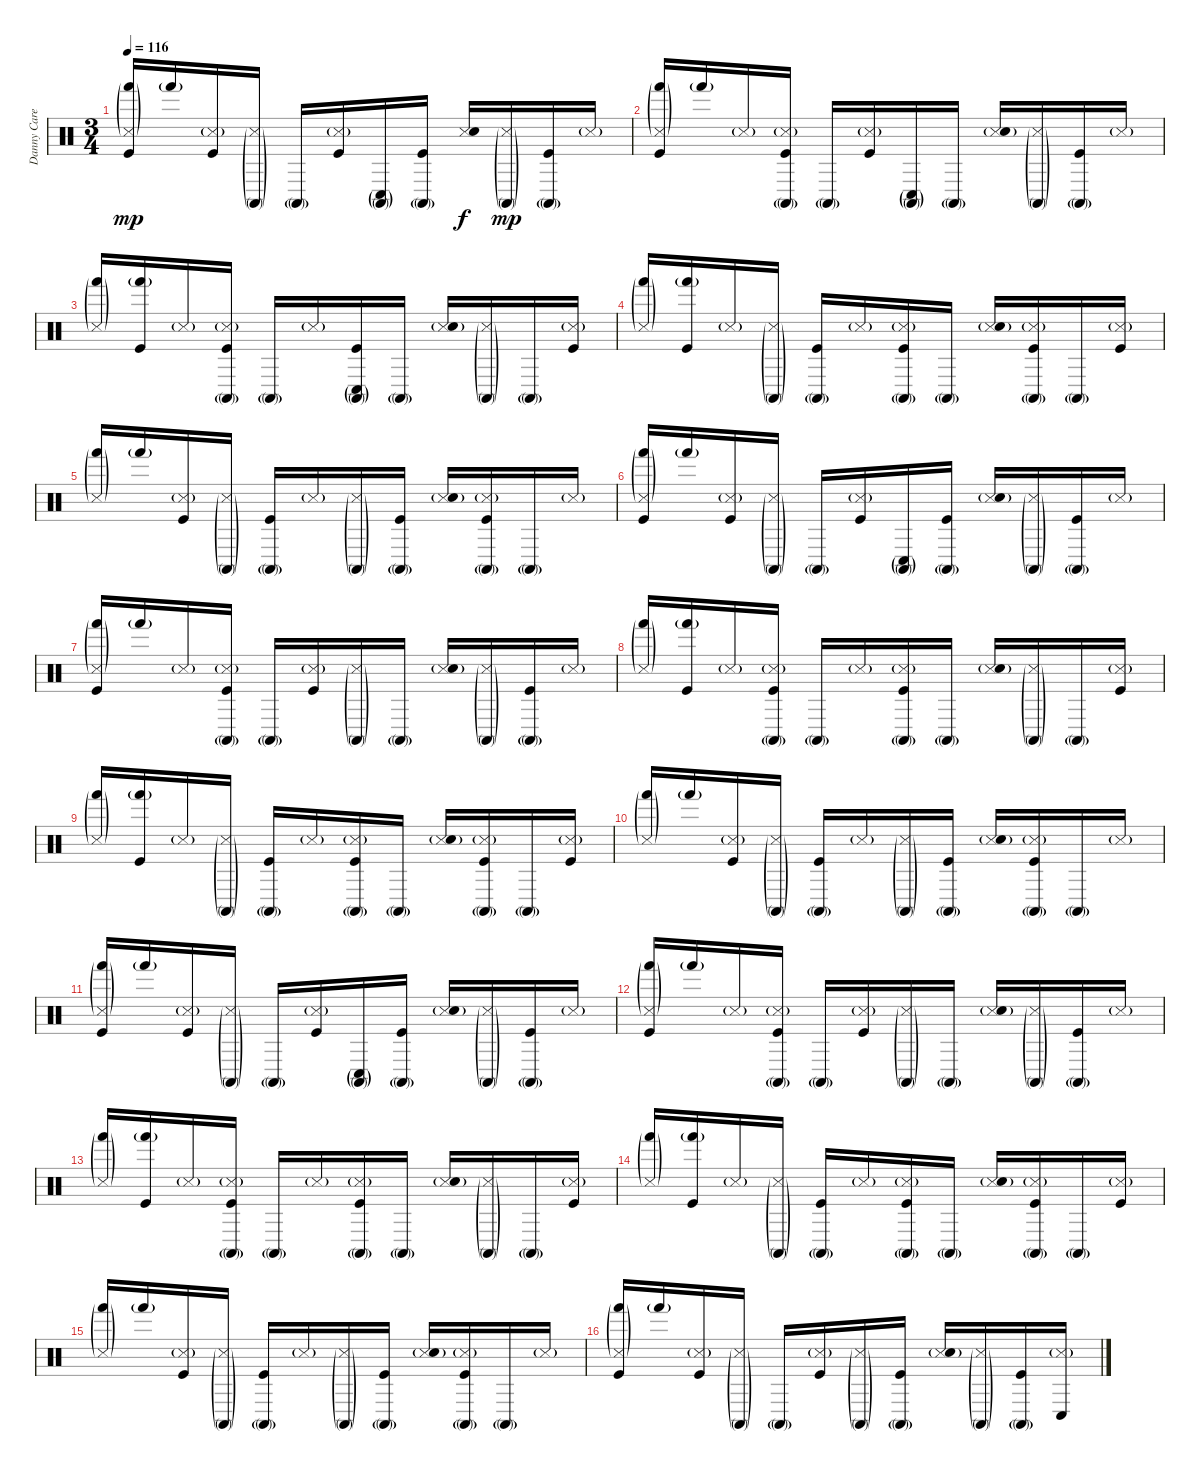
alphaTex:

\track ("Danny Carey (drum)" "Danny Care") {instrument percussion}
\staff {score}
\articulation defaults
\ts (3 4)
\tempo 116
\clef neutral
\ks c
("Hand (hit)"{g} "Snare (side stick) 3"{g} "Kick (hit)").16{dy mp} "Hand (hit)"{g}.16 ("Snare (side stick) 3"{g} "Kick (hit)").16 ("Conga high (mute)"{g} "Snare (side stick) 3"{g}).16 "Conga high (mute)"{g}.16 ("Snare (side stick) 3"{g} "Kick (hit)").16 ("Conga high (mute)"{g} "Conga low (hit)"{g}).16 ("Conga high (mute)"{g} "Kick (hit)").16 ("Snare (side stick) 3" "Snare (hit) 2").16{dy f} ("Conga high (mute)"{g} "Snare (side stick) 3"{g}).16{dy mp} ("Conga high (mute)"{g} "Kick (hit)").16 "Snare (side stick) 3"{g}.16 |
("Hand (hit)"{g} "Snare (side stick) 3"{g} "Kick (hit)").16 "Hand (hit)"{g}.16 "Snare (side stick) 3"{g}.16 ("Conga high (mute)"{g} "Snare (side stick) 3"{g} "Kick (hit)").16 "Conga high (mute)"{g}.16 ("Snare (side stick) 3"{g} "Kick (hit)").16 ("Conga high (mute)"{g} "Conga low (hit)"{g}).16 "Conga high (mute)"{g}.16 ("Snare (side stick) 3"{g} "Snare (hit) 2").16 ("Conga high (mute)"{g} "Snare (side stick) 3"{g}).16 ("Conga high (mute)"{g} "Kick (hit)").16 "Snare (side stick) 3"{g}.16 |
("Hand (hit)"{g} "Snare (side stick) 3"{g}).16 ("Hand (hit)"{g} "Kick (hit)").16 "Snare (side stick) 3"{g}.16 ("Conga high (mute)"{g} "Snare (side stick) 3"{g} "Kick (hit)").16 "Conga high (mute)"{g}.16 "Snare (side stick) 3"{g}.16 ("Conga high (mute)"{g} "Conga low (hit)"{g} "Kick (hit)").16 "Conga high (mute)"{g}.16 ("Snare (side stick) 3"{g} "Snare (hit) 2").16 ("Conga high (mute)"{g} "Snare (side stick) 3"{g}).16 "Conga high (mute)"{g}.16 ("Snare (side stick) 3"{g} "Kick (hit)").16 |
("Hand (hit)"{g} "Snare (side stick) 3"{g}).16 ("Hand (hit)"{g} "Kick (hit)").16 "Snare (side stick) 3"{g}.16 ("Conga high (mute)"{g} "Snare (side stick) 3"{g}).16 ("Conga high (mute)"{g} "Kick (hit)").16 "Snare (side stick) 3"{g}.16 ("Conga high (mute)"{g} "Snare (side stick) 3"{g} "Kick (hit)").16 "Conga high (mute)"{g}.16 ("Snare (side stick) 3"{g} "Snare (hit) 2").16 ("Conga high (mute)"{g} "Snare (side stick) 3"{g} "Kick (hit)").16 "Conga high (mute)"{g}.16 ("Snare (side stick) 3"{g} "Kick (hit)").16 |
("Hand (hit)"{g} "Snare (side stick) 3"{g}).16 "Hand (hit)"{g}.16 ("Snare (side stick) 3"{g} "Kick (hit)").16 ("Conga high (mute)"{g} "Snare (side stick) 3"{g}).16 ("Conga high (mute)"{g} "Kick (hit)").16 "Snare (side stick) 3"{g}.16 ("Conga high (mute)"{g} "Snare (side stick) 3"{g}).16 ("Conga high (mute)"{g} "Kick (hit)").16 ("Snare (side stick) 3"{g} "Snare (hit) 2").16 ("Conga high (mute)"{g} "Snare (side stick) 3"{g} "Kick (hit)").16 "Conga high (mute)"{g}.16 "Snare (side stick) 3"{g}.16 |
("Hand (hit)"{g} "Snare (side stick) 3"{g} "Kick (hit)").16 "Hand (hit)"{g}.16 ("Snare (side stick) 3"{g} "Kick (hit)").16 ("Conga high (mute)"{g} "Snare (side stick) 3"{g}).16 "Conga high (mute)"{g}.16 ("Snare (side stick) 3"{g} "Kick (hit)").16 ("Conga high (mute)"{g} "Conga low (hit)"{g}).16 ("Conga high (mute)"{g} "Kick (hit)").16 ("Snare (side stick) 3"{g} "Snare (hit) 2").16 ("Conga high (mute)"{g} "Snare (side stick) 3"{g}).16 ("Conga high (mute)"{g} "Kick (hit)").16 "Snare (side stick) 3"{g}.16 |
("Hand (hit)"{g} "Snare (side stick) 3"{g} "Kick (hit)").16 "Hand (hit)"{g}.16 "Snare (side stick) 3"{g}.16 ("Conga high (mute)"{g} "Snare (side stick) 3"{g} "Kick (hit)").16 "Conga high (mute)"{g}.16 ("Snare (side stick) 3"{g} "Kick (hit)").16 ("Conga high (mute)"{g} "Snare (side stick) 3"{g}).16 "Conga high (mute)"{g}.16 ("Snare (side stick) 3"{g} "Snare (hit) 2").16 ("Conga high (mute)"{g} "Snare (side stick) 3"{g}).16 ("Conga high (mute)"{g} "Kick (hit)").16 "Snare (side stick) 3"{g}.16 |
("Hand (hit)"{g} "Snare (side stick) 3"{g}).16 ("Hand (hit)"{g} "Kick (hit)").16 "Snare (side stick) 3"{g}.16 ("Conga high (mute)"{g} "Snare (side stick) 3"{g} "Kick (hit)").16 "Conga high (mute)"{g}.16 "Snare (side stick) 3"{g}.16 ("Conga high (mute)"{g} "Snare (side stick) 3"{g} "Kick (hit)").16 "Conga high (mute)"{g}.16 ("Snare (side stick) 3"{g} "Snare (hit) 2").16 ("Conga high (mute)"{g} "Snare (side stick) 3"{g}).16 "Conga high (mute)"{g}.16 ("Snare (side stick) 3"{g} "Kick (hit)").16 |
("Hand (hit)"{g} "Snare (side stick) 3"{g}).16 ("Hand (hit)"{g} "Kick (hit)").16 "Snare (side stick) 3"{g}.16 ("Conga high (mute)"{g} "Snare (side stick) 3"{g}).16 ("Conga high (mute)"{g} "Kick (hit)").16 "Snare (side stick) 3"{g}.16 ("Conga high (mute)"{g} "Snare (side stick) 3"{g} "Kick (hit)").16 "Conga high (mute)"{g}.16 ("Snare (side stick) 3"{g} "Snare (hit) 2").16 ("Conga high (mute)"{g} "Snare (side stick) 3"{g} "Kick (hit)").16 "Conga high (mute)"{g}.16 ("Snare (side stick) 3"{g} "Kick (hit)").16 |
("Hand (hit)"{g} "Snare (side stick) 3"{g}).16 "Hand (hit)"{g}.16 ("Snare (side stick) 3"{g} "Kick (hit)").16 ("Conga high (mute)"{g} "Snare (side stick) 3"{g}).16 ("Conga high (mute)"{g} "Kick (hit)").16 "Snare (side stick) 3"{g}.16 ("Conga high (mute)"{g} "Snare (side stick) 3"{g}).16 ("Conga high (mute)"{g} "Kick (hit)").16 ("Snare (side stick) 3"{g} "Snare (hit) 2").16 ("Conga high (mute)"{g} "Snare (side stick) 3"{g} "Kick (hit)").16 "Conga high (mute)"{g}.16 "Snare (side stick) 3"{g}.16 |
("Hand (hit)"{g} "Snare (side stick) 3"{g} "Kick (hit)").16 "Hand (hit)"{g}.16 ("Snare (side stick) 3"{g} "Kick (hit)").16 ("Conga high (mute)"{g} "Snare (side stick) 3"{g}).16 "Conga high (mute)"{g}.16 ("Snare (side stick) 3"{g} "Kick (hit)").16 ("Conga high (mute)"{g} "Conga low (hit)"{g}).16 ("Conga high (mute)"{g} "Kick (hit)").16 ("Snare (side stick) 3"{g} "Snare (hit) 2").16 ("Conga high (mute)"{g} "Snare (side stick) 3"{g}).16 ("Conga high (mute)"{g} "Kick (hit)").16 "Snare (side stick) 3"{g}.16 |
("Hand (hit)"{g} "Snare (side stick) 3"{g} "Kick (hit)").16 "Hand (hit)"{g}.16 "Snare (side stick) 3"{g}.16 ("Conga high (mute)"{g} "Snare (side stick) 3"{g} "Kick (hit)").16 "Conga high (mute)"{g}.16 ("Snare (side stick) 3"{g} "Kick (hit)").16 ("Conga high (mute)"{g} "Snare (side stick) 3"{g}).16 "Conga high (mute)"{g}.16 ("Snare (side stick) 3"{g} "Snare (hit) 2").16 ("Conga high (mute)"{g} "Snare (side stick) 3"{g}).16 ("Conga high (mute)"{g} "Kick (hit)").16 "Snare (side stick) 3"{g}.16 |
("Hand (hit)"{g} "Snare (side stick) 3"{g}).16 ("Hand (hit)"{g} "Kick (hit)").16 "Snare (side stick) 3"{g}.16 ("Conga high (mute)"{g} "Snare (side stick) 3"{g} "Kick (hit)").16 "Conga high (mute)"{g}.16 "Snare (side stick) 3"{g}.16 ("Conga high (mute)"{g} "Snare (side stick) 3"{g} "Kick (hit)").16 "Conga high (mute)"{g}.16 ("Snare (side stick) 3"{g} "Snare (hit) 2").16 ("Conga high (mute)"{g} "Snare (side stick) 3"{g}).16 "Conga high (mute)"{g}.16 ("Snare (side stick) 3"{g} "Kick (hit)").16 |
("Hand (hit)"{g} "Snare (side stick) 3"{g}).16 ("Hand (hit)"{g} "Kick (hit)").16 "Snare (side stick) 3"{g}.16 ("Conga high (mute)"{g} "Snare (side stick) 3"{g}).16 ("Conga high (mute)"{g} "Kick (hit)").16 "Snare (side stick) 3"{g}.16 ("Conga high (mute)"{g} "Snare (side stick) 3"{g} "Kick (hit)").16 "Conga high (mute)"{g}.16 ("Snare (side stick) 3"{g} "Snare (hit) 2").16 ("Conga high (mute)"{g} "Snare (side stick) 3"{g} "Kick (hit)").16 "Conga high (mute)"{g}.16 ("Snare (side stick) 3"{g} "Kick (hit)").16 |
("Hand (hit)"{g} "Snare (side stick) 3"{g}).16 "Hand (hit)"{g}.16 ("Snare (side stick) 3"{g} "Kick (hit)").16 ("Conga high (mute)"{g} "Snare (side stick) 3"{g}).16 ("Conga high (mute)"{g} "Kick (hit)").16 "Snare (side stick) 3"{g}.16 ("Conga high (mute)"{g} "Snare (side stick) 3"{g}).16 ("Conga high (mute)"{g} "Kick (hit)").16 ("Snare (side stick) 3"{g} "Snare (hit) 2").16 ("Conga high (mute)"{g} "Snare (side stick) 3"{g} "Kick (hit)").16 "Conga high (mute)"{g}.16 "Snare (side stick) 3"{g}.16 |
("Hand (hit)"{g} "Snare (side stick) 3"{g} "Kick (hit)").16 "Hand (hit)"{g}.16 ("Snare (side stick) 3"{g} "Kick (hit)").16 ("Conga high (mute)"{g} "Snare (side stick) 3"{g}).16 "Conga high (mute)"{g}.16 ("Snare (side stick) 3"{g} "Kick (hit)").16 ("Conga high (mute)"{g} "Snare (side stick) 3"{g}).16 ("Conga high (mute)"{g} "Kick (hit)").16 ("Snare (side stick) 3"{g} "Snare (hit) 2").16 ("Conga high (mute)"{g} "Snare (side stick) 3"{g}).16 ("Conga high (mute)"{g} "Kick (hit)").16 ("Snare (side stick) 3"{g} "Conga low (hit)").16
